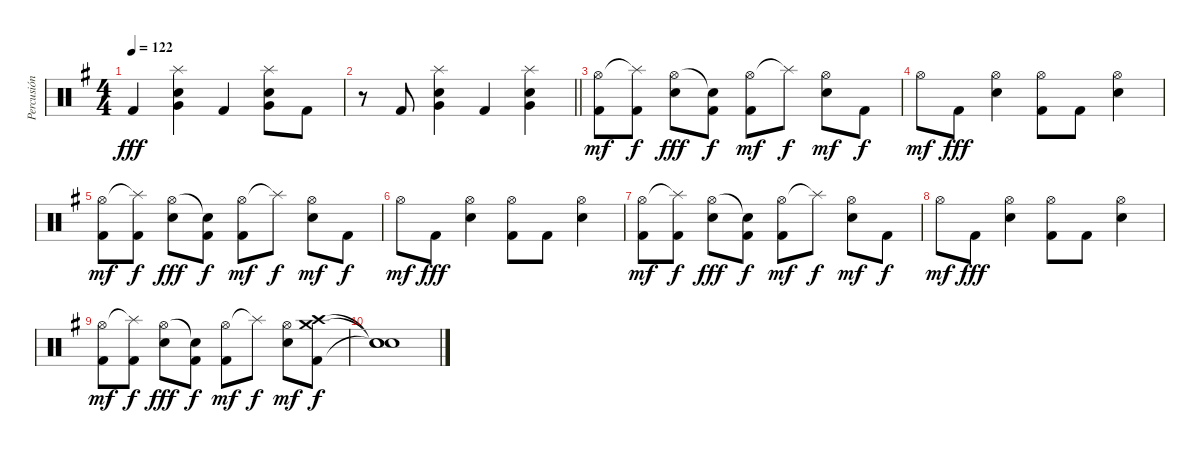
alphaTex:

\track ("Percusión" "Percusión") {instrument percussion}
\staff {score}
\articulation defaults
\ts (4 4)
\tempo 122
\clef neutral
\ks g "Kick (hit) 2".4{dy fff}
("Splash (hit)" "Very Low Tom (hit)" "Snare (hit) 2").4 "Kick (hit) 2".4 ("Splash (hit)" "Very Low Tom (hit)" "Snare (hit) 2").8 "Kick (hit) 2".8 |
\barLineRight lightlight
r.8 "Kick (hit) 2".8 ("Splash (hit)" "Very Low Tom (hit)" "Snare (hit) 2").4 "Kick (hit) 2".4 ("Splash (hit)" "Very Low Tom (hit)" "Snare (hit) 2").4 |
("Hi-Hat (open)" "Kick (hit) 2").8{dy mf} ("Splash (hit)"{t} "Kick (hit) 2").8{dy f} ("Hi-Hat (open)" "Snare (hit) 2").8{dy fff} ("Snare (hit)"{t} "Kick (hit) 2").8{dy f} ("Hi-Hat (open)" "Kick (hit) 2").8{dy mf} "Splash (hit)"{t}.8{dy f} ("Hi-Hat (open)" "Snare (hit) 2").8{dy mf} "Kick (hit) 2".8{dy f} |
"Hi-Hat (open)".8{dy mf} "Kick (hit) 2".8{dy fff} ("Hi-Hat (open)" "Snare (hit) 2").4 ("Hi-Hat (open)" "Kick (hit) 2").8 "Kick (hit) 2".8 ("Hi-Hat (open)" "Snare (hit) 2").4 |
("Hi-Hat (open)" "Kick (hit) 2").8{dy mf} ("Splash (hit)"{t} "Kick (hit) 2").8{dy f} ("Hi-Hat (open)" "Snare (hit) 2").8{dy fff} ("Snare (hit)"{t} "Kick (hit) 2").8{dy f} ("Hi-Hat (open)" "Kick (hit) 2").8{dy mf} "Splash (hit)"{t}.8{dy f} ("Hi-Hat (open)" "Snare (hit) 2").8{dy mf} "Kick (hit) 2".8{dy f} |
"Hi-Hat (open)".8{dy mf} "Kick (hit) 2".8{dy fff} ("Hi-Hat (open)" "Snare (hit) 2").4 ("Hi-Hat (open)" "Kick (hit) 2").8 "Kick (hit) 2".8 ("Hi-Hat (open)" "Snare (hit) 2").4 |
("Hi-Hat (open)" "Kick (hit) 2").8{dy mf} ("Splash (hit)"{t} "Kick (hit) 2").8{dy f} ("Hi-Hat (open)" "Snare (hit) 2").8{dy fff} ("Snare (hit)"{t} "Kick (hit) 2").8{dy f} ("Hi-Hat (open)" "Kick (hit) 2").8{dy mf} "Splash (hit)"{t}.8{dy f} ("Hi-Hat (open)" "Snare (hit) 2").8{dy mf} "Kick (hit) 2".8{dy f} |
"Hi-Hat (open)".8{dy mf} "Kick (hit) 2".8{dy fff} ("Hi-Hat (open)" "Snare (hit) 2").4 ("Hi-Hat (open)" "Kick (hit) 2").8 "Kick (hit) 2".8 ("Hi-Hat (open)" "Snare (hit) 2").4 |
("Hi-Hat (open)" "Kick (hit) 2").8{dy mf} ("Splash (hit)"{t} "Kick (hit) 2").8{dy f} ("Hi-Hat (open)" "Snare (hit) 2").8{dy fff} ("Snare (hit)"{t} "Kick (hit) 2").8{dy f} ("Hi-Hat (open)" "Kick (hit) 2").8{dy mf} "Splash (hit)"{t}.8{dy f} ("Hi-Hat (open)" "Snare (hit) 2").8{dy mf} ("Crash high (hit)" "Crash medium (hit)" "Kick (hit) 2").8{dy f} |
("Snare (hit)"{t} "Snare (hit)"{t} "Snare (hit)"{t}).1
